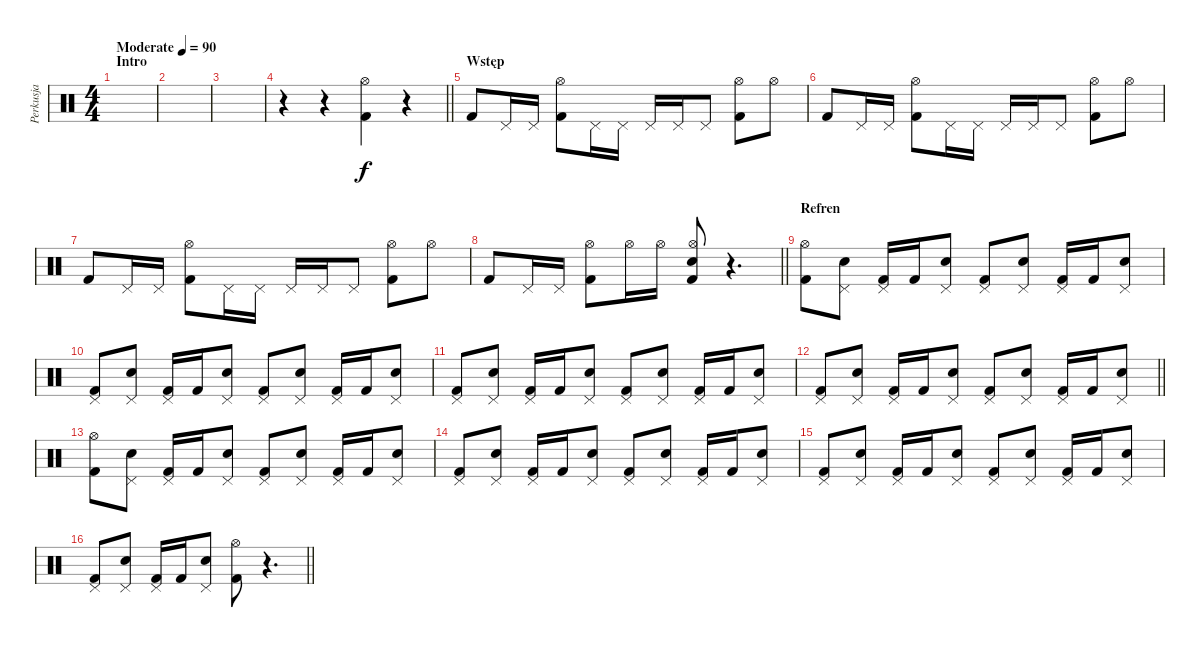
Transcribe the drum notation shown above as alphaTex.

\track ("Perkusja" "Perkusja") {instrument percussion}
\staff {score}
\articulation defaults
\ts (4 4)
\section ("" "Intro")
\tempo (90 "Moderate")
\clef neutral
\ks c
|
|
|
\barLineRight lightlight
r.4 r.4 ("Kick (hit) 2" "Hi-Hat (open)").4 r.4 |
\section ("" "Wstęp")
"Kick (hit) 2".8 "Pedal Hi-Hat (hit)".16 "Pedal Hi-Hat (hit)".16 ("Hi-Hat (open)" "Kick (hit) 2").8 "Pedal Hi-Hat (hit)".16 "Pedal Hi-Hat (hit)".16 "Pedal Hi-Hat (hit)".16 "Pedal Hi-Hat (hit)".16 "Pedal Hi-Hat (hit)".8 ("Hi-Hat (open)" "Kick (hit) 2").8 "Hi-Hat (open)".8 |
"Kick (hit) 2".8 "Pedal Hi-Hat (hit)".16 "Pedal Hi-Hat (hit)".16 ("Hi-Hat (open)" "Kick (hit) 2").8 "Pedal Hi-Hat (hit)".16 "Pedal Hi-Hat (hit)".16 "Pedal Hi-Hat (hit)".16 "Pedal Hi-Hat (hit)".16 "Pedal Hi-Hat (hit)".8 ("Hi-Hat (open)" "Kick (hit) 2").8 "Hi-Hat (open)".8 |
"Kick (hit) 2".8 "Pedal Hi-Hat (hit)".16 "Pedal Hi-Hat (hit)".16 ("Hi-Hat (open)" "Kick (hit) 2").8 "Pedal Hi-Hat (hit)".16 "Pedal Hi-Hat (hit)".16 "Pedal Hi-Hat (hit)".16 "Pedal Hi-Hat (hit)".16 "Pedal Hi-Hat (hit)".8 ("Hi-Hat (open)" "Kick (hit) 2").8 "Hi-Hat (open)".8 |
\barLineRight lightlight "Kick (hit) 2".8 "Pedal Hi-Hat (hit)".16 "Pedal Hi-Hat (hit)".16
("Hi-Hat (open)" "Kick (hit) 2").8 "Hi-Hat (open)".16 "Hi-Hat (open)".16 ("Hi-Hat (open)" "Kick (hit) 2" "Electric Snare (hit)").8 r.4{d} |
\section ("" "Refren")
("Hi-Hat (open)" "Kick (hit) 2").8 ("Pedal Hi-Hat (hit)" "Electric Snare (hit)").8 ("Pedal Hi-Hat (hit)" "Kick (hit) 2").16 "Kick (hit) 2".16 ("Pedal Hi-Hat (hit)" "Electric Snare (hit)").8 ("Pedal Hi-Hat (hit)" "Kick (hit) 2").8 ("Pedal Hi-Hat (hit)" "Electric Snare (hit)").8 ("Pedal Hi-Hat (hit)" "Kick (hit) 2").16 "Kick (hit) 2".16 ("Pedal Hi-Hat (hit)" "Electric Snare (hit)").8 |
("Pedal Hi-Hat (hit)" "Kick (hit) 2").8 ("Pedal Hi-Hat (hit)" "Electric Snare (hit)").8 ("Pedal Hi-Hat (hit)" "Kick (hit) 2").16 "Kick (hit) 2".16 ("Pedal Hi-Hat (hit)" "Electric Snare (hit)").8 ("Pedal Hi-Hat (hit)" "Kick (hit) 2").8 ("Pedal Hi-Hat (hit)" "Electric Snare (hit)").8 ("Pedal Hi-Hat (hit)" "Kick (hit) 2").16 "Kick (hit) 2".16 ("Pedal Hi-Hat (hit)" "Electric Snare (hit)").8 |
("Pedal Hi-Hat (hit)" "Kick (hit) 2").8 ("Pedal Hi-Hat (hit)" "Electric Snare (hit)").8 ("Pedal Hi-Hat (hit)" "Kick (hit) 2").16 "Kick (hit) 2".16 ("Pedal Hi-Hat (hit)" "Electric Snare (hit)").8 ("Pedal Hi-Hat (hit)" "Kick (hit) 2").8 ("Pedal Hi-Hat (hit)" "Electric Snare (hit)").8 ("Pedal Hi-Hat (hit)" "Kick (hit) 2").16 "Kick (hit) 2".16 ("Pedal Hi-Hat (hit)" "Electric Snare (hit)").8 |
\barLineRight lightlight
("Pedal Hi-Hat (hit)" "Kick (hit) 2").8 ("Pedal Hi-Hat (hit)" "Electric Snare (hit)").8 ("Pedal Hi-Hat (hit)" "Kick (hit) 2").16 "Kick (hit) 2".16 ("Pedal Hi-Hat (hit)" "Electric Snare (hit)").8 ("Pedal Hi-Hat (hit)" "Kick (hit) 2").8 ("Pedal Hi-Hat (hit)" "Electric Snare (hit)").8 ("Pedal Hi-Hat (hit)" "Kick (hit) 2").16 "Kick (hit) 2".16 ("Pedal Hi-Hat (hit)" "Electric Snare (hit)").8 |
("Hi-Hat (open)" "Kick (hit) 2").8 ("Pedal Hi-Hat (hit)" "Electric Snare (hit)").8 ("Pedal Hi-Hat (hit)" "Kick (hit) 2").16 "Kick (hit) 2".16 ("Pedal Hi-Hat (hit)" "Electric Snare (hit)").8 ("Pedal Hi-Hat (hit)" "Kick (hit) 2").8 ("Pedal Hi-Hat (hit)" "Electric Snare (hit)").8 ("Pedal Hi-Hat (hit)" "Kick (hit) 2").16 "Kick (hit) 2".16 ("Pedal Hi-Hat (hit)" "Electric Snare (hit)").8 |
("Pedal Hi-Hat (hit)" "Kick (hit) 2").8 ("Pedal Hi-Hat (hit)" "Electric Snare (hit)").8 ("Pedal Hi-Hat (hit)" "Kick (hit) 2").16 "Kick (hit) 2".16 ("Pedal Hi-Hat (hit)" "Electric Snare (hit)").8 ("Pedal Hi-Hat (hit)" "Kick (hit) 2").8 ("Pedal Hi-Hat (hit)" "Electric Snare (hit)").8 ("Pedal Hi-Hat (hit)" "Kick (hit) 2").16 "Kick (hit) 2".16 ("Pedal Hi-Hat (hit)" "Electric Snare (hit)").8 |
("Pedal Hi-Hat (hit)" "Kick (hit) 2").8 ("Pedal Hi-Hat (hit)" "Electric Snare (hit)").8 ("Pedal Hi-Hat (hit)" "Kick (hit) 2").16 "Kick (hit) 2".16 ("Pedal Hi-Hat (hit)" "Electric Snare (hit)").8 ("Pedal Hi-Hat (hit)" "Kick (hit) 2").8 ("Pedal Hi-Hat (hit)" "Electric Snare (hit)").8 ("Pedal Hi-Hat (hit)" "Kick (hit) 2").16 "Kick (hit) 2".16 ("Pedal Hi-Hat (hit)" "Electric Snare (hit)").8 |
\barLineRight lightlight
("Pedal Hi-Hat (hit)" "Kick (hit) 2").8 ("Pedal Hi-Hat (hit)" "Electric Snare (hit)").8 ("Pedal Hi-Hat (hit)" "Kick (hit) 2").16 "Kick (hit) 2".16 ("Pedal Hi-Hat (hit)" "Electric Snare (hit)").8 ("Hi-Hat (open)" "Kick (hit) 2").8 r.4{d}
